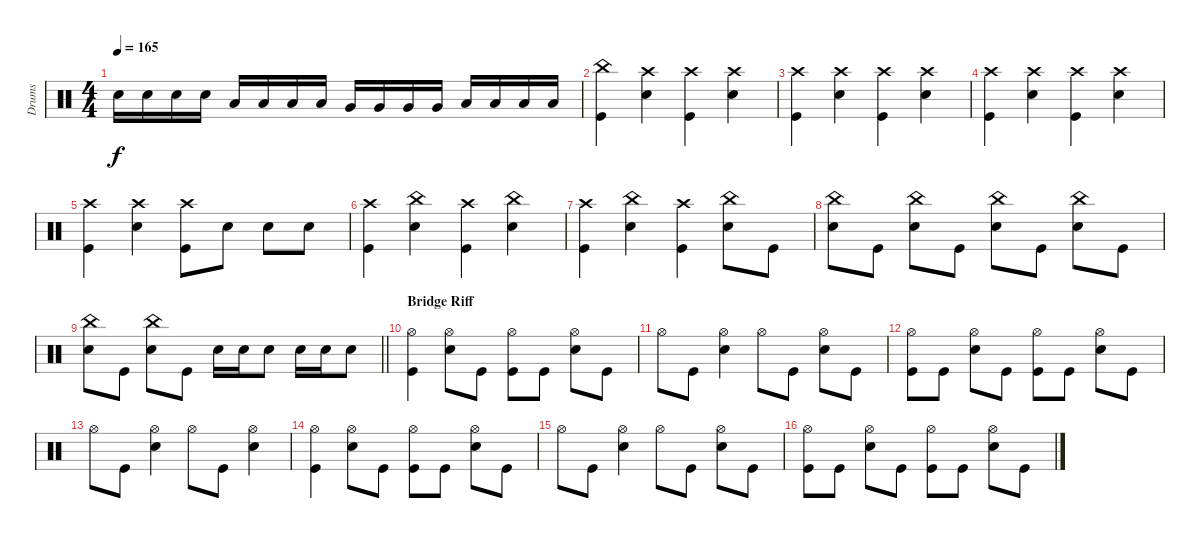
\track ("Drums" "Drums") {instrument percussion}
\staff {score}
\articulation defaults
\ts (4 4)
\tempo 165
\clef neutral
\ks c "Snare (hit) 2".16{dy f} "Snare (hit) 2".16 "Snare (hit) 2".16 "Snare (hit) 2".16 "Low Tom (hit)".16 "Low Tom (hit)".16 "Low Tom (hit)".16 "Low Tom (hit)".16 "Very Low Tom (hit)".16 "Very Low Tom (hit)".16 "Very Low Tom (hit)".16 "Very Low Tom (hit)".16 "Low Floor Tom (hit)".16 "Low Floor Tom (hit)".16 "Low Floor Tom (hit)".16 "Low Floor Tom (hit)".16
|
("Kick (hit)" "China (hit)").4 ("Snare (hit) 2" "Crash high (hit)").4 ("Kick (hit)" "Crash high (hit)").4 ("Snare (hit) 2" "Crash high (hit)").4 |
("Kick (hit)" "Crash high (hit)").4 ("Snare (hit) 2" "Crash high (hit)").4 ("Kick (hit)" "Crash high (hit)").4 ("Snare (hit) 2" "Crash high (hit)").4 |
("Kick (hit)" "Crash high (hit)").4 ("Snare (hit) 2" "Crash high (hit)").4 ("Kick (hit)" "Crash high (hit)").4 ("Snare (hit) 2" "Crash high (hit)").4 |
("Kick (hit)" "Crash high (hit)").4 ("Snare (hit) 2" "Crash high (hit)").4 ("Kick (hit)" "Crash high (hit)").8 "Snare (hit) 2".8 "Snare (hit) 2".8 "Snare (hit) 2".8 |
("Kick (hit)" "Crash high (hit)").4 ("Snare (hit) 2" "China (hit)").4 ("Kick (hit)" "Crash high (hit)").4 ("Snare (hit) 2" "China (hit)").4 |
("Kick (hit)" "Crash high (hit)").4 ("Snare (hit) 2" "China (hit)").4 ("Kick (hit)" "Crash high (hit)").4 ("Snare (hit) 2" "China (hit)").8 "Kick (hit)".8 |
("Snare (hit) 2" "China (hit)").8 "Kick (hit)".8 ("Snare (hit) 2" "China (hit)").8 "Kick (hit)".8 ("Snare (hit) 2" "China (hit)").8 "Kick (hit)".8 ("Snare (hit) 2" "China (hit)").8 "Kick (hit)".8 |
\barLineRight lightlight
("Snare (hit) 2" "China (hit)").8 "Kick (hit)".8 ("Snare (hit) 2" "China (hit)").8 "Kick (hit)".8 "Snare (hit) 2".16 "Snare (hit) 2".16 "Snare (hit) 2".8 "Snare (hit) 2".16 "Snare (hit) 2".16 "Snare (hit) 2".8 |
\section ("" "Bridge Riff")
("Kick (hit)" "Hi-Hat (open)").4 ("Snare (hit) 2" "Hi-Hat (open)").8 "Kick (hit)".8 ("Kick (hit)" "Hi-Hat (open)").8 "Kick (hit)".8 ("Snare (hit) 2" "Hi-Hat (open)").8 "Kick (hit)".8 |
"Hi-Hat (open)".8 "Kick (hit)".8 ("Snare (hit) 2" "Hi-Hat (open)").4 "Hi-Hat (open)".8 "Kick (hit)".8 ("Snare (hit) 2" "Hi-Hat (open)").8 "Kick (hit)".8 |
("Kick (hit)" "Hi-Hat (open)").8 "Kick (hit)".8 ("Snare (hit) 2" "Hi-Hat (open)").8 "Kick (hit)".8 ("Kick (hit)" "Hi-Hat (open)").8 "Kick (hit)".8 ("Snare (hit) 2" "Hi-Hat (open)").8 "Kick (hit)".8 |
"Hi-Hat (open)".8 "Kick (hit)".8 ("Snare (hit) 2" "Hi-Hat (open)").4 "Hi-Hat (open)".8 "Kick (hit)".8 ("Snare (hit) 2" "Hi-Hat (open)").4 |
("Kick (hit)" "Hi-Hat (open)").4 ("Snare (hit) 2" "Hi-Hat (open)").8 "Kick (hit)".8 ("Kick (hit)" "Hi-Hat (open)").8 "Kick (hit)".8 ("Snare (hit) 2" "Hi-Hat (open)").8 "Kick (hit)".8 |
"Hi-Hat (open)".8 "Kick (hit)".8 ("Snare (hit) 2" "Hi-Hat (open)").4 "Hi-Hat (open)".8 "Kick (hit)".8 ("Snare (hit) 2" "Hi-Hat (open)").8 "Kick (hit)".8 |
("Kick (hit)" "Hi-Hat (open)").8 "Kick (hit)".8 ("Snare (hit) 2" "Hi-Hat (open)").8 "Kick (hit)".8 ("Kick (hit)" "Hi-Hat (open)").8 "Kick (hit)".8 ("Snare (hit) 2" "Hi-Hat (open)").8 "Kick (hit)".8
